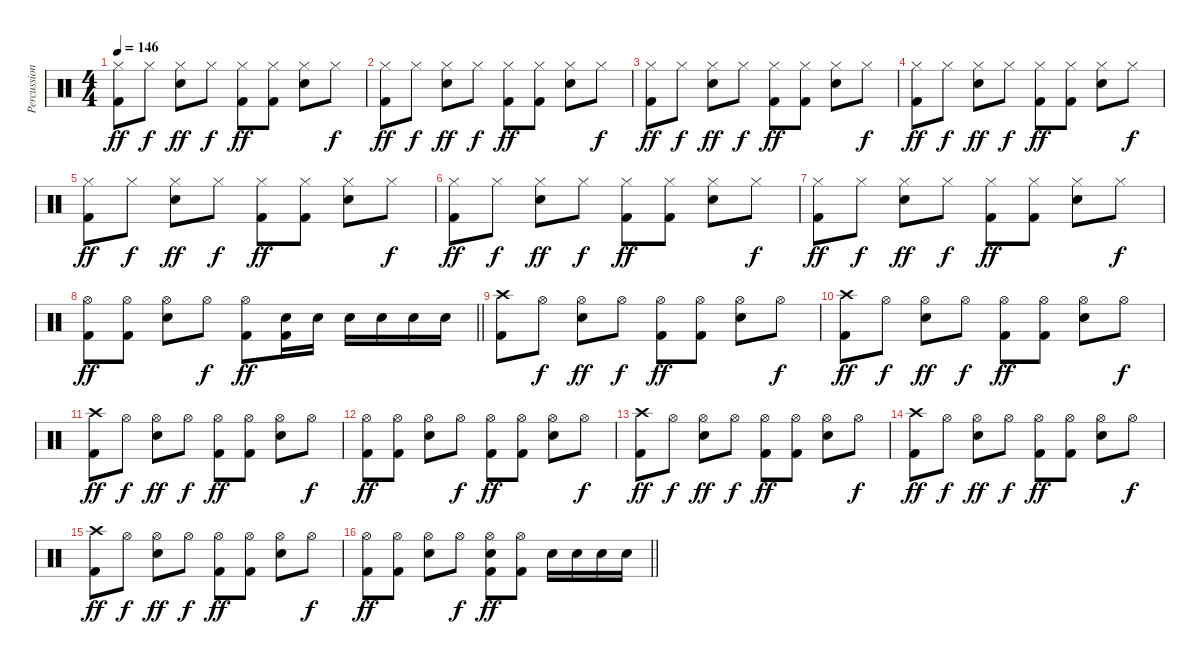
\track ("Percussion" "Percussion") {instrument percussion}
\staff {score}
\articulation defaults
\ts (4 4)
\tempo 146
\clef neutral
\ks c
("Hi-Hat (closed)" "Kick (hit) 2").8{dy ff} "Hi-Hat (closed)".8{dy f} ("Hi-Hat (closed)" "Snare (hit) 2").8{dy ff} "Hi-Hat (closed)".8{dy f} ("Hi-Hat (closed)" "Kick (hit) 2").8{dy ff} ("Hi-Hat (closed)" "Kick (hit) 2").8 ("Hi-Hat (closed)" "Snare (hit) 2").8 "Hi-Hat (closed)".8{dy f} |
("Hi-Hat (closed)" "Kick (hit) 2").8{dy ff} "Hi-Hat (closed)".8{dy f} ("Hi-Hat (closed)" "Snare (hit) 2").8{dy ff} "Hi-Hat (closed)".8{dy f} ("Hi-Hat (closed)" "Kick (hit) 2").8{dy ff} ("Hi-Hat (closed)" "Kick (hit) 2").8 ("Hi-Hat (closed)" "Snare (hit) 2").8 "Hi-Hat (closed)".8{dy f} |
("Hi-Hat (closed)" "Kick (hit) 2").8{dy ff} "Hi-Hat (closed)".8{dy f} ("Hi-Hat (closed)" "Snare (hit) 2").8{dy ff} "Hi-Hat (closed)".8{dy f} ("Hi-Hat (closed)" "Kick (hit) 2").8{dy ff} ("Hi-Hat (closed)" "Kick (hit) 2").8 ("Hi-Hat (closed)" "Snare (hit) 2").8 "Hi-Hat (closed)".8{dy f} |
("Hi-Hat (closed)" "Kick (hit) 2").8{dy ff} "Hi-Hat (closed)".8{dy f} ("Hi-Hat (closed)" "Snare (hit) 2").8{dy ff} "Hi-Hat (closed)".8{dy f} ("Hi-Hat (closed)" "Kick (hit) 2").8{dy ff} ("Hi-Hat (closed)" "Kick (hit) 2").8 ("Hi-Hat (closed)" "Snare (hit) 2").8 "Hi-Hat (closed)".8{dy f} |
("Hi-Hat (closed)" "Kick (hit) 2").8{dy ff} "Hi-Hat (closed)".8{dy f} ("Hi-Hat (closed)" "Snare (hit) 2").8{dy ff} "Hi-Hat (closed)".8{dy f} ("Hi-Hat (closed)" "Kick (hit) 2").8{dy ff} ("Hi-Hat (closed)" "Kick (hit) 2").8 ("Hi-Hat (closed)" "Snare (hit) 2").8 "Hi-Hat (closed)".8{dy f} |
("Hi-Hat (closed)" "Kick (hit) 2").8{dy ff} "Hi-Hat (closed)".8{dy f} ("Hi-Hat (closed)" "Snare (hit) 2").8{dy ff} "Hi-Hat (closed)".8{dy f} ("Hi-Hat (closed)" "Kick (hit) 2").8{dy ff} ("Hi-Hat (closed)" "Kick (hit) 2").8 ("Hi-Hat (closed)" "Snare (hit) 2").8 "Hi-Hat (closed)".8{dy f} |
("Hi-Hat (closed)" "Kick (hit) 2").8{dy ff} "Hi-Hat (closed)".8{dy f} ("Hi-Hat (closed)" "Snare (hit) 2").8{dy ff} "Hi-Hat (closed)".8{dy f} ("Hi-Hat (closed)" "Kick (hit) 2").8{dy ff} ("Hi-Hat (closed)" "Kick (hit) 2").8 ("Hi-Hat (closed)" "Snare (hit) 2").8 "Hi-Hat (closed)".8{dy f} |
\barLineRight lightlight
("Hi-Hat (open)" "Kick (hit) 2").8{dy ff} ("Hi-Hat (open)" "Kick (hit) 2").8 ("Hi-Hat (open)" "Snare (hit) 2").8 "Hi-Hat (open)".8{dy f} ("Hi-Hat (open)" "Kick (hit) 2").8{dy ff} ("Snare (hit) 2" "Kick (hit) 2").16 "Snare (hit) 2".16 "Snare (hit) 2".16 "Snare (hit) 2".16 "Snare (hit) 2".16 "Snare (hit) 2".16 |
("Crash high (hit)" "Kick (hit) 2").8 "Hi-Hat (open)".8{dy f} ("Hi-Hat (open)" "Snare (hit) 2").8{dy ff} "Hi-Hat (open)".8{dy f} ("Hi-Hat (open)" "Kick (hit) 2").8{dy ff} ("Hi-Hat (open)" "Kick (hit) 2").8 ("Hi-Hat (open)" "Snare (hit) 2").8 "Hi-Hat (open)".8{dy f} |
("Crash high (hit)" "Kick (hit) 2").8{dy ff} "Hi-Hat (open)".8{dy f} ("Hi-Hat (open)" "Snare (hit) 2").8{dy ff} "Hi-Hat (open)".8{dy f} ("Hi-Hat (open)" "Kick (hit) 2").8{dy ff} ("Hi-Hat (open)" "Kick (hit) 2").8 ("Hi-Hat (open)" "Snare (hit) 2").8 "Hi-Hat (open)".8{dy f} |
("Crash high (hit)" "Kick (hit) 2").8{dy ff} "Hi-Hat (open)".8{dy f} ("Hi-Hat (open)" "Snare (hit) 2").8{dy ff} "Hi-Hat (open)".8{dy f} ("Hi-Hat (open)" "Kick (hit) 2").8{dy ff} ("Hi-Hat (open)" "Kick (hit) 2").8 ("Hi-Hat (open)" "Snare (hit) 2").8 "Hi-Hat (open)".8{dy f} |
("Hi-Hat (open)" "Kick (hit) 2").8{dy ff} ("Hi-Hat (open)" "Kick (hit) 2").8 ("Hi-Hat (open)" "Snare (hit) 2").8 "Hi-Hat (open)".8{dy f} ("Hi-Hat (open)" "Kick (hit) 2").8{dy ff} ("Hi-Hat (open)" "Kick (hit) 2").8 ("Hi-Hat (open)" "Snare (hit) 2").8 "Hi-Hat (open)".8{dy f} |
("Crash high (hit)" "Kick (hit) 2").8{dy ff} "Hi-Hat (open)".8{dy f} ("Hi-Hat (open)" "Snare (hit) 2").8{dy ff} "Hi-Hat (open)".8{dy f} ("Hi-Hat (open)" "Kick (hit) 2").8{dy ff} ("Hi-Hat (open)" "Kick (hit) 2").8 ("Hi-Hat (open)" "Snare (hit) 2").8 "Hi-Hat (open)".8{dy f} |
("Crash high (hit)" "Kick (hit) 2").8{dy ff} "Hi-Hat (open)".8{dy f} ("Hi-Hat (open)" "Snare (hit) 2").8{dy ff} "Hi-Hat (open)".8{dy f} ("Hi-Hat (open)" "Kick (hit) 2").8{dy ff} ("Hi-Hat (open)" "Kick (hit) 2").8 ("Hi-Hat (open)" "Snare (hit) 2").8 "Hi-Hat (open)".8{dy f} |
("Crash high (hit)" "Kick (hit) 2").8{dy ff} "Hi-Hat (open)".8{dy f} ("Hi-Hat (open)" "Snare (hit) 2").8{dy ff} "Hi-Hat (open)".8{dy f} ("Hi-Hat (open)" "Kick (hit) 2").8{dy ff} ("Hi-Hat (open)" "Kick (hit) 2").8 ("Hi-Hat (open)" "Snare (hit) 2").8 "Hi-Hat (open)".8{dy f} |
\barLineRight lightlight
("Hi-Hat (open)" "Kick (hit) 2").8{dy ff} ("Hi-Hat (open)" "Kick (hit) 2").8 ("Hi-Hat (open)" "Snare (hit) 2").8 "Hi-Hat (open)".8{dy f} ("Hi-Hat (open)" "Snare (hit) 2" "Kick (hit) 2").8{dy ff} ("Hi-Hat (open)" "Kick (hit) 2").8 "Snare (hit) 2".16 "Snare (hit) 2".16 "Snare (hit) 2".16 "Snare (hit) 2".16
